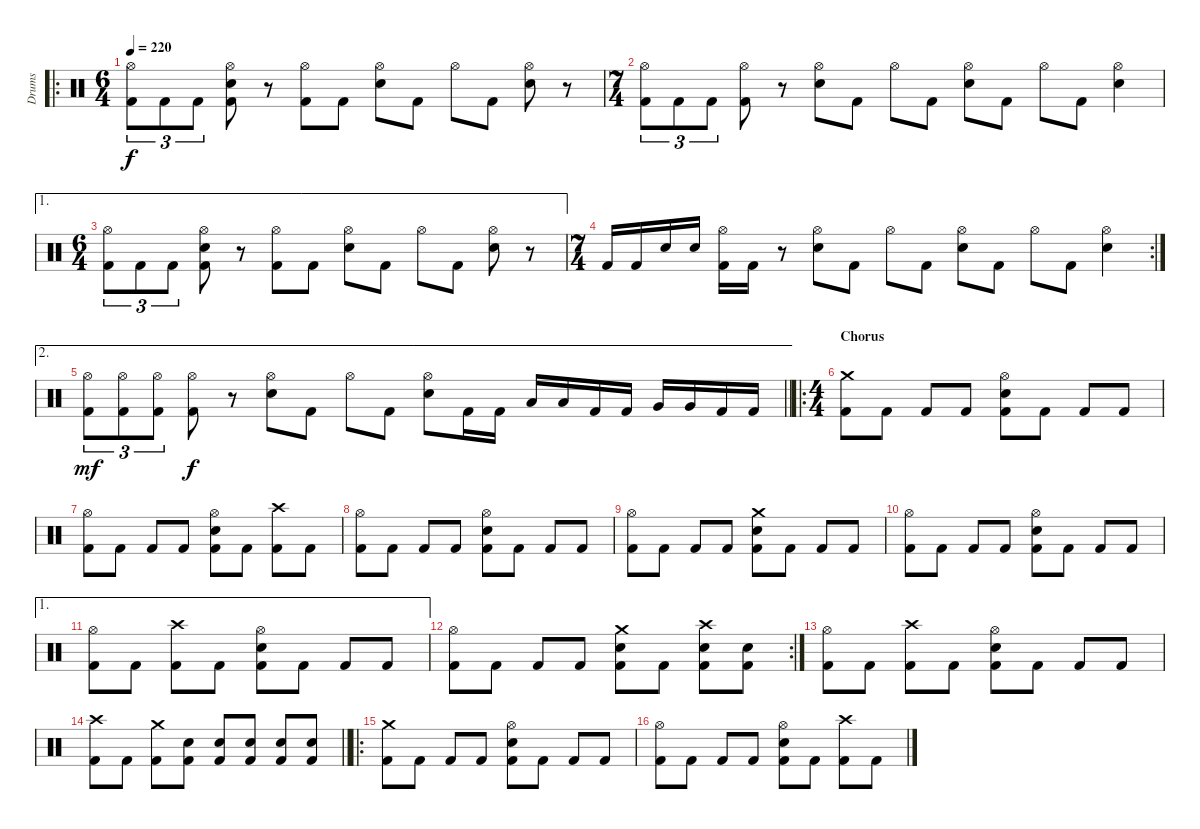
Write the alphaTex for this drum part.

\track ("Drums" "Drums") {instrument percussion}
\staff {score}
\articulation defaults
\ro
\ts (6 4)
\tempo 220
\clef neutral
\ks c
("Hi-Hat (open)" "Kick (hit) 2").8{tu (3 2) dy f} "Kick (hit) 2".8{tu (3 2)} "Kick (hit) 2".8{tu (3 2)} ("Hi-Hat (open)" "Electric Snare (hit)" "Kick (hit) 2").8 r.8 ("Hi-Hat (open)" "Kick (hit) 2").8 "Kick (hit) 2".8 ("Hi-Hat (open)" "Electric Snare (hit)").8 "Kick (hit) 2".8 "Hi-Hat (open)".8 "Kick (hit) 2".8 ("Hi-Hat (open)" "Electric Snare (hit)").8 r.8 |
\ts (7 4)
("Hi-Hat (open)" "Kick (hit) 2").8{tu (3 2)} "Kick (hit) 2".8{tu (3 2)} "Kick (hit) 2".8{tu (3 2)} ("Hi-Hat (open)" "Kick (hit) 2").8 r.8 ("Hi-Hat (open)" "Electric Snare (hit)").8 "Kick (hit) 2".8 "Hi-Hat (open)".8 "Kick (hit) 2".8 ("Hi-Hat (open)" "Electric Snare (hit)").8 "Kick (hit) 2".8 "Hi-Hat (open)".8 "Kick (hit) 2".8 ("Hi-Hat (open)" "Electric Snare (hit)").4 |
\ae 1
\ts (6 4)
("Hi-Hat (open)" "Kick (hit) 2").8{tu (3 2)} "Kick (hit) 2".8{tu (3 2)} "Kick (hit) 2".8{tu (3 2)} ("Hi-Hat (open)" "Electric Snare (hit)" "Kick (hit) 2").8 r.8 ("Hi-Hat (open)" "Kick (hit) 2").8 "Kick (hit) 2".8 ("Hi-Hat (open)" "Electric Snare (hit)").8 "Kick (hit) 2".8 "Hi-Hat (open)".8 "Kick (hit) 2".8 ("Hi-Hat (open)" "Electric Snare (hit)").8 r.8 |
\rc 2
\ts (7 4)
"Kick (hit) 2".16 "Kick (hit) 2".16 "Electric Snare (hit)".16 "Electric Snare (hit)".16 ("Hi-Hat (open)" "Kick (hit) 2").16 "Kick (hit) 2".16 r.8 ("Hi-Hat (open)" "Electric Snare (hit)").8 "Kick (hit) 2".8 "Hi-Hat (open)".8 "Kick (hit) 2".8 ("Hi-Hat (open)" "Electric Snare (hit)").8 "Kick (hit) 2".8 "Hi-Hat (open)".8 "Kick (hit) 2".8 ("Hi-Hat (open)" "Electric Snare (hit)").4 |
\ae 2
\barLineRight lightlight
("Hi-Hat (open)" "Kick (hit) 2").8{tu (3 2) dy mf} ("Hi-Hat (open)" "Kick (hit) 2").8{tu (3 2)} ("Hi-Hat (open)" "Kick (hit) 2").8{tu (3 2)} ("Hi-Hat (open)" "Kick (hit) 2").8{dy f} r.8 ("Hi-Hat (open)" "Electric Snare (hit)").8 "Kick (hit) 2".8 "Hi-Hat (open)".8 "Kick (hit) 2".8 ("Hi-Hat (open)" "Electric Snare (hit)").8 "Kick (hit) 2".16 "Kick (hit) 2".16 "Low Tom (hit)".16 "Low Tom (hit)".16 "Kick (hit) 2".16 "Kick (hit) 2".16 "Very Low Tom (hit)".16 "Very Low Tom (hit)".16 "Kick (hit) 2".16 "Kick (hit) 2".16 |
\ro
\ts (4 4)
\section ("" "Chorus")
("Crash medium (hit)" "Kick (hit) 2").8 "Kick (hit) 2".8 "Kick (hit) 2".8 "Kick (hit) 2".8 ("Hi-Hat (open)" "Electric Snare (hit)" "Kick (hit) 2").8 "Kick (hit) 2".8 "Kick (hit) 2".8 "Kick (hit) 2".8 |
("Hi-Hat (open)" "Kick (hit) 2").8 "Kick (hit) 2".8 "Kick (hit) 2".8 "Kick (hit) 2".8 ("Hi-Hat (open)" "Electric Snare (hit)" "Kick (hit) 2").8 "Kick (hit) 2".8 ("Crash high (hit)" "Kick (hit) 2").8 "Kick (hit) 2".8 |
("Hi-Hat (open)" "Kick (hit) 2").8 "Kick (hit) 2".8 "Kick (hit) 2".8 "Kick (hit) 2".8 ("Hi-Hat (open)" "Electric Snare (hit)" "Kick (hit) 2").8 "Kick (hit) 2".8 "Kick (hit) 2".8 "Kick (hit) 2".8 |
("Hi-Hat (open)" "Kick (hit) 2").8 "Kick (hit) 2".8 "Kick (hit) 2".8 "Kick (hit) 2".8 ("Crash medium (hit)" "Electric Snare (hit)" "Kick (hit) 2").8 "Kick (hit) 2".8 "Kick (hit) 2".8 "Kick (hit) 2".8 |
("Hi-Hat (open)" "Kick (hit) 2").8 "Kick (hit) 2".8 "Kick (hit) 2".8 "Kick (hit) 2".8 ("Hi-Hat (open)" "Electric Snare (hit)" "Kick (hit) 2").8 "Kick (hit) 2".8 "Kick (hit) 2".8 "Kick (hit) 2".8 |
\ae 1
("Hi-Hat (open)" "Kick (hit) 2").8 "Kick (hit) 2".8 ("Crash high (hit)" "Kick (hit) 2").8 "Kick (hit) 2".8 ("Hi-Hat (open)" "Electric Snare (hit)" "Kick (hit) 2").8 "Kick (hit) 2".8 "Kick (hit) 2".8 "Kick (hit) 2".8 |
\rc 2
("Hi-Hat (open)" "Kick (hit) 2").8 "Kick (hit) 2".8 "Kick (hit) 2".8 "Kick (hit) 2".8 ("Crash medium (hit)" "Electric Snare (hit)" "Kick (hit) 2").8 "Kick (hit) 2".8 ("Crash high (hit)" "Electric Snare (hit)" "Kick (hit) 2").8 ("Electric Snare (hit)" "Kick (hit) 2").8 |
("Hi-Hat (open)" "Kick (hit) 2").8 "Kick (hit) 2".8 ("Crash high (hit)" "Kick (hit) 2").8 "Kick (hit) 2".8 ("Hi-Hat (open)" "Electric Snare (hit)" "Kick (hit) 2").8 "Kick (hit) 2".8 "Kick (hit) 2".8 "Kick (hit) 2".8 |
\barLineRight lightlight
("Crash high (hit)" "Kick (hit) 2").8 "Kick (hit) 2".8 ("Crash medium (hit)" "Kick (hit) 2").8 ("Electric Snare (hit)" "Kick (hit) 2").8 ("Electric Snare (hit)" "Kick (hit) 2").8 ("Electric Snare (hit)" "Kick (hit) 2").8 ("Electric Snare (hit)" "Kick (hit) 2").8 ("Electric Snare (hit)" "Kick (hit) 2").8 |
\ro
("Crash medium (hit)" "Kick (hit) 2").8 "Kick (hit) 2".8 "Kick (hit) 2".8 "Kick (hit) 2".8 ("Hi-Hat (open)" "Electric Snare (hit)" "Kick (hit) 2").8 "Kick (hit) 2".8 "Kick (hit) 2".8 "Kick (hit) 2".8 |
("Hi-Hat (open)" "Kick (hit) 2").8 "Kick (hit) 2".8 "Kick (hit) 2".8 "Kick (hit) 2".8 ("Hi-Hat (open)" "Electric Snare (hit)" "Kick (hit) 2").8 "Kick (hit) 2".8 ("Crash high (hit)" "Kick (hit) 2").8 "Kick (hit) 2".8
